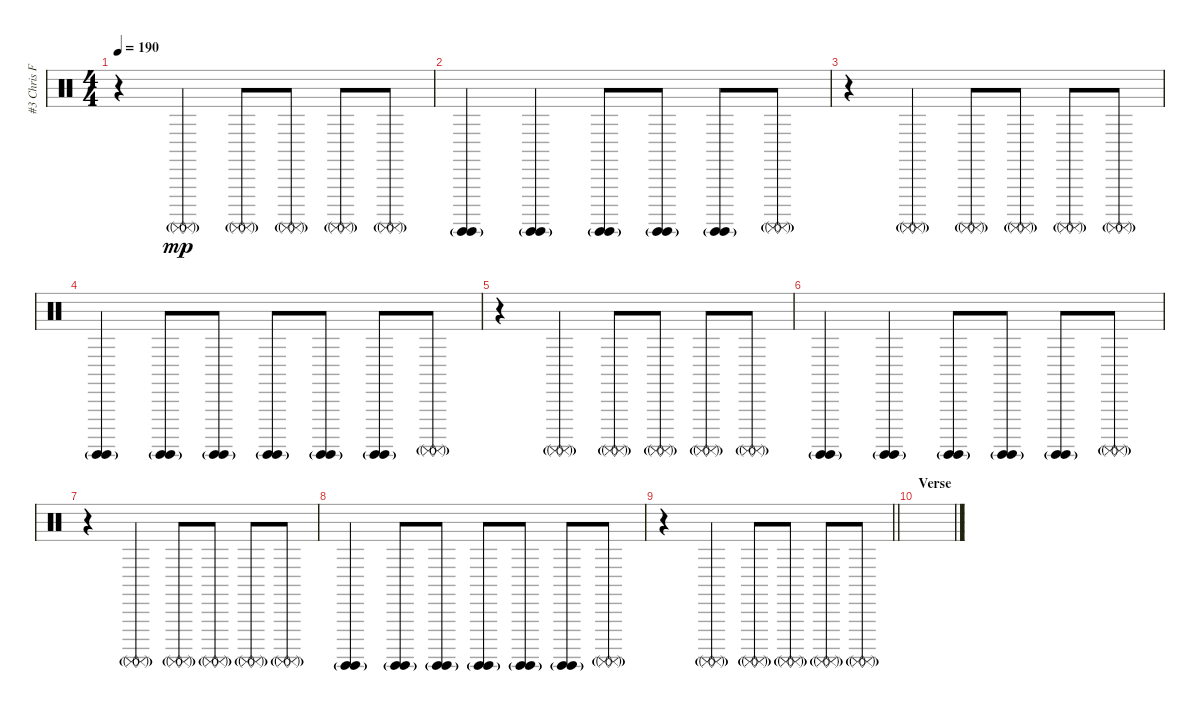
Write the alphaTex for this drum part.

\track ("#3 Chris Fehn" "#3 Chris F") {instrument percussion}
\staff {score}
\articulation defaults
\ts (4 4)
\tempo 190
\clef neutral
\ks c
r.4{dy mp} ("Surdo (mute)"{g} "Surdo (mute)"{g}).4 ("Surdo (mute)"{g} "Surdo (mute)"{g}).8 ("Surdo (mute)"{g} "Surdo (mute)"{g}).8 ("Surdo (mute)"{g} "Surdo (mute)"{g}).8 ("Surdo (mute)"{g} "Surdo (mute)"{g}).8 |
("Surdo (hit)"{g} "Surdo (hit)"{g}).4 ("Surdo (hit)"{g} "Surdo (hit)"{g}).4 ("Surdo (hit)"{g} "Surdo (hit)"{g}).8 ("Surdo (hit)"{g} "Surdo (hit)"{g}).8 ("Surdo (hit)"{g} "Surdo (hit)"{g}).8 ("Surdo (mute)"{g} "Surdo (mute)"{g}).8 |
r.4 ("Surdo (mute)"{g} "Surdo (mute)"{g}).4 ("Surdo (mute)"{g} "Surdo (mute)"{g}).8 ("Surdo (mute)"{g} "Surdo (mute)"{g}).8 ("Surdo (mute)"{g} "Surdo (mute)"{g}).8 ("Surdo (mute)"{g} "Surdo (mute)"{g}).8 |
("Surdo (hit)"{g} "Surdo (hit)"{g}).4 ("Surdo (hit)"{g} "Surdo (hit)"{g}).8 ("Surdo (hit)"{g} "Surdo (hit)"{g}).8 ("Surdo (hit)"{g} "Surdo (hit)"{g}).8 ("Surdo (hit)"{g} "Surdo (hit)"{g}).8 ("Surdo (hit)"{g} "Surdo (hit)"{g}).8 ("Surdo (mute)"{g} "Surdo (mute)"{g}).8 |
r.4 ("Surdo (mute)"{g} "Surdo (mute)"{g}).4 ("Surdo (mute)"{g} "Surdo (mute)"{g}).8 ("Surdo (mute)"{g} "Surdo (mute)"{g}).8 ("Surdo (mute)"{g} "Surdo (mute)"{g}).8 ("Surdo (mute)"{g} "Surdo (mute)"{g}).8 |
("Surdo (hit)"{g} "Surdo (hit)"{g}).4 ("Surdo (hit)"{g} "Surdo (hit)"{g}).4 ("Surdo (hit)"{g} "Surdo (hit)"{g}).8 ("Surdo (hit)"{g} "Surdo (hit)"{g}).8 ("Surdo (hit)"{g} "Surdo (hit)"{g}).8 ("Surdo (mute)"{g} "Surdo (mute)"{g}).8 |
r.4 ("Surdo (mute)"{g} "Surdo (mute)"{g}).4 ("Surdo (mute)"{g} "Surdo (mute)"{g}).8 ("Surdo (mute)"{g} "Surdo (mute)"{g}).8 ("Surdo (mute)"{g} "Surdo (mute)"{g}).8 ("Surdo (mute)"{g} "Surdo (mute)"{g}).8 |
("Surdo (hit)"{g} "Surdo (hit)"{g}).4 ("Surdo (hit)"{g} "Surdo (hit)"{g}).8 ("Surdo (hit)"{g} "Surdo (hit)"{g}).8 ("Surdo (hit)"{g} "Surdo (hit)"{g}).8 ("Surdo (hit)"{g} "Surdo (hit)"{g}).8 ("Surdo (hit)"{g} "Surdo (hit)"{g}).8 ("Surdo (mute)"{g} "Surdo (mute)"{g}).8 |
\barLineRight lightlight
r.4 ("Surdo (mute)"{g} "Surdo (mute)"{g}).4 ("Surdo (mute)"{g} "Surdo (mute)"{g}).8 ("Surdo (mute)"{g} "Surdo (mute)"{g}).8 ("Surdo (mute)"{g} "Surdo (mute)"{g}).8 ("Surdo (mute)"{g} "Surdo (mute)"{g}).8 |
\section ("" "Verse")
